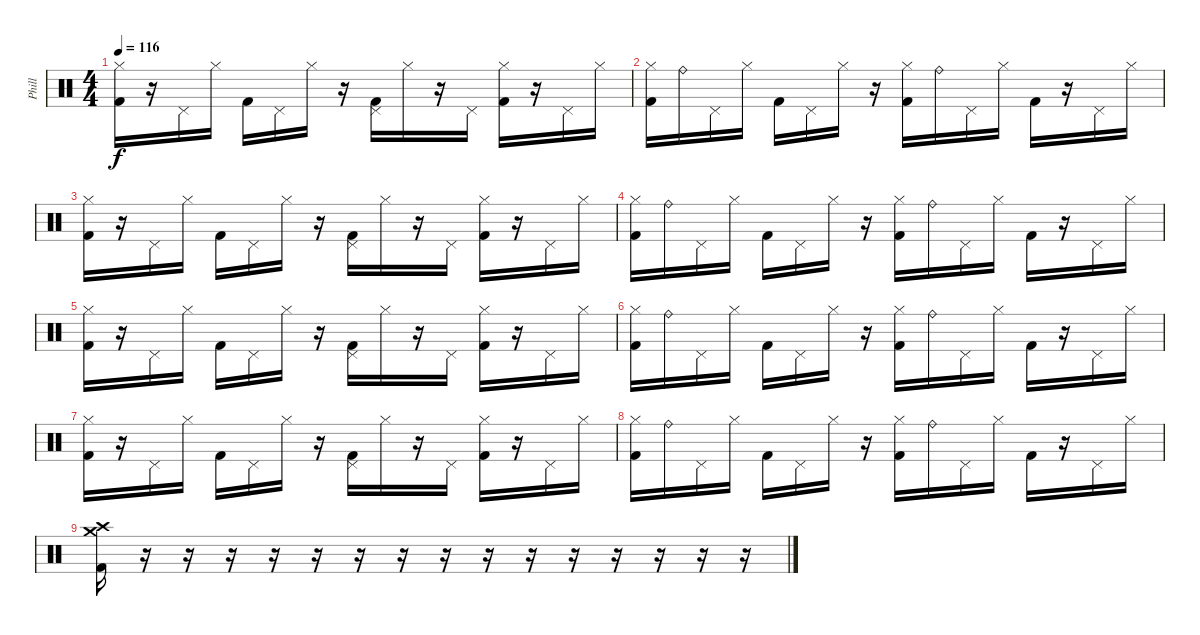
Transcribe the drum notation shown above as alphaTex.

\track ("Phill" "Phill") {instrument percussion}
\staff {score}
\articulation defaults
\ts (4 4)
\tempo 116
\clef neutral
\ks c
("Hi-Hat (closed)" "Kick (hit) 2").16{dy f} r.16 "Pedal Hi-Hat (hit)".16 "Hi-Hat (closed)".16 "Kick (hit) 2".16 "Pedal Hi-Hat (hit)".16 "Hi-Hat (closed)".16 r.16 ("Pedal Hi-Hat (hit)" "Kick (hit) 2").16 "Hi-Hat (closed)".16 r.16 "Pedal Hi-Hat (hit)".16 ("Hi-Hat (closed)" "Kick (hit) 2").16 r.16 "Pedal Hi-Hat (hit)".16 "Hi-Hat (closed)".16 |
("Hi-Hat (closed)" "Kick (hit) 2").16 "Ride (bell)".16 "Pedal Hi-Hat (hit)".16 "Hi-Hat (closed)".16 "Kick (hit) 2".16 "Pedal Hi-Hat (hit)".16 "Hi-Hat (closed)".16 r.16 ("Hi-Hat (closed)" "Kick (hit) 2").16 "Ride (bell)".16 "Pedal Hi-Hat (hit)".16 "Hi-Hat (closed)".16 "Kick (hit) 2".16 r.16 "Pedal Hi-Hat (hit)".16 "Hi-Hat (closed)".16 |
("Hi-Hat (closed)" "Kick (hit) 2").16 r.16 "Pedal Hi-Hat (hit)".16 "Hi-Hat (closed)".16 "Kick (hit) 2".16 "Pedal Hi-Hat (hit)".16 "Hi-Hat (closed)".16 r.16 ("Pedal Hi-Hat (hit)" "Kick (hit) 2").16 "Hi-Hat (closed)".16 r.16 "Pedal Hi-Hat (hit)".16 ("Hi-Hat (closed)" "Kick (hit) 2").16 r.16 "Pedal Hi-Hat (hit)".16 "Hi-Hat (closed)".16 |
("Hi-Hat (closed)" "Kick (hit) 2").16 "Ride (bell)".16 "Pedal Hi-Hat (hit)".16 "Hi-Hat (closed)".16 "Kick (hit) 2".16 "Pedal Hi-Hat (hit)".16 "Hi-Hat (closed)".16 r.16 ("Hi-Hat (closed)" "Kick (hit) 2").16 "Ride (bell)".16 "Pedal Hi-Hat (hit)".16 "Hi-Hat (closed)".16 "Kick (hit) 2".16 r.16 "Pedal Hi-Hat (hit)".16 "Hi-Hat (closed)".16 |
("Hi-Hat (closed)" "Kick (hit) 2").16 r.16 "Pedal Hi-Hat (hit)".16 "Hi-Hat (closed)".16 "Kick (hit) 2".16 "Pedal Hi-Hat (hit)".16 "Hi-Hat (closed)".16 r.16 ("Pedal Hi-Hat (hit)" "Kick (hit) 2").16 "Hi-Hat (closed)".16 r.16 "Pedal Hi-Hat (hit)".16 ("Hi-Hat (closed)" "Kick (hit) 2").16 r.16 "Pedal Hi-Hat (hit)".16 "Hi-Hat (closed)".16 |
("Hi-Hat (closed)" "Kick (hit) 2").16 "Ride (bell)".16 "Pedal Hi-Hat (hit)".16 "Hi-Hat (closed)".16 "Kick (hit) 2".16 "Pedal Hi-Hat (hit)".16 "Hi-Hat (closed)".16 r.16 ("Hi-Hat (closed)" "Kick (hit) 2").16 "Ride (bell)".16 "Pedal Hi-Hat (hit)".16 "Hi-Hat (closed)".16 "Kick (hit) 2".16 r.16 "Pedal Hi-Hat (hit)".16 "Hi-Hat (closed)".16 |
("Hi-Hat (closed)" "Kick (hit) 2").16 r.16 "Pedal Hi-Hat (hit)".16 "Hi-Hat (closed)".16 "Kick (hit) 2".16 "Pedal Hi-Hat (hit)".16 "Hi-Hat (closed)".16 r.16 ("Pedal Hi-Hat (hit)" "Kick (hit) 2").16 "Hi-Hat (closed)".16 r.16 "Pedal Hi-Hat (hit)".16 ("Hi-Hat (closed)" "Kick (hit) 2").16 r.16 "Pedal Hi-Hat (hit)".16 "Hi-Hat (closed)".16 |
("Hi-Hat (closed)" "Kick (hit) 2").16 "Ride (bell)".16 "Pedal Hi-Hat (hit)".16 "Hi-Hat (closed)".16 "Kick (hit) 2".16 "Pedal Hi-Hat (hit)".16 "Hi-Hat (closed)".16 r.16 ("Hi-Hat (closed)" "Kick (hit) 2").16 "Ride (bell)".16 "Pedal Hi-Hat (hit)".16 "Hi-Hat (closed)".16 "Kick (hit) 2".16 r.16 "Pedal Hi-Hat (hit)".16 "Hi-Hat (closed)".16 |
("Crash high (hit)" "Kick (hit) 2" "Crash medium (hit)").16{volume 5} r.16 r.16 r.16 r.16 r.16 r.16 r.16 r.16 r.16 r.16 r.16 r.16 r.16 r.16 r.16
